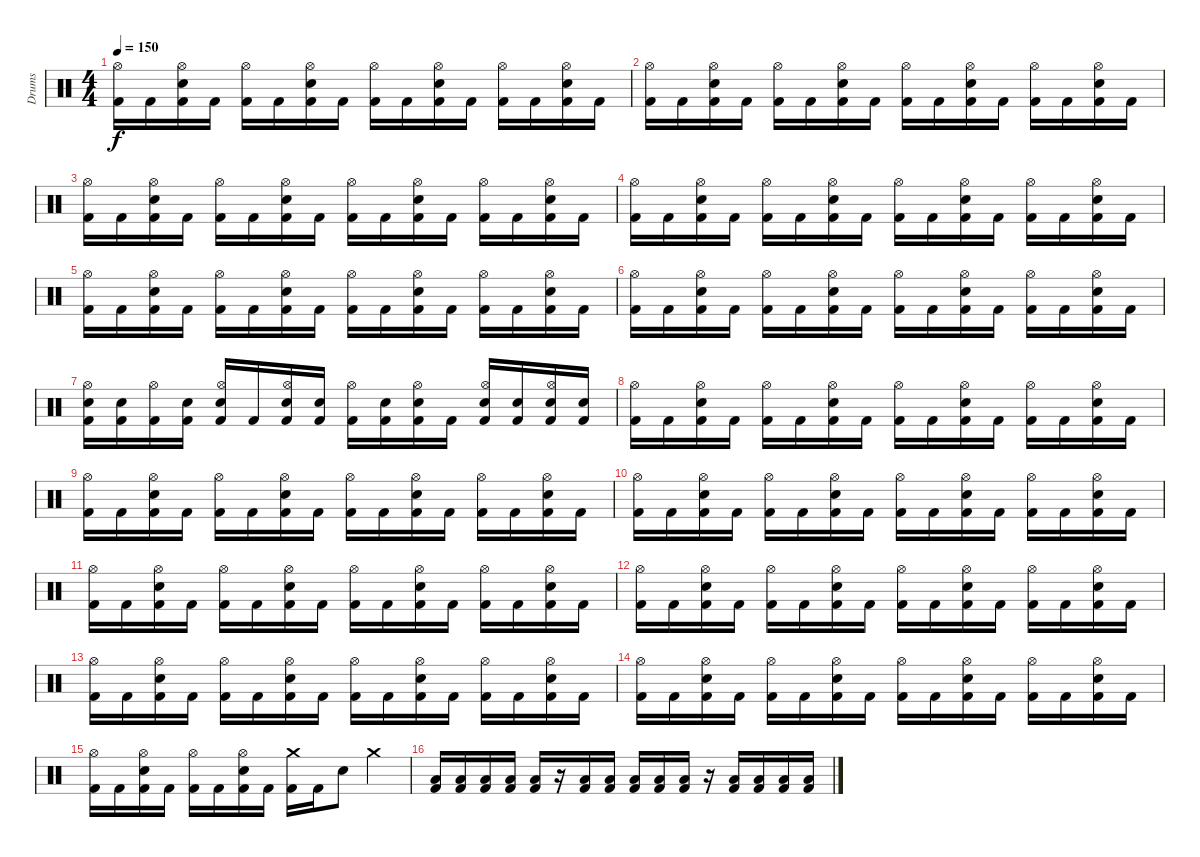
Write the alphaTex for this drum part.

\track ("Drums" "Drums") {instrument percussion}
\staff {score}
\articulation defaults
\ts (4 4)
\tempo 150
\clef neutral
\ks c
("Kick (hit) 2" "Hi-Hat (open)").16{dy f} "Kick (hit) 2".16 ("Kick (hit) 2" "Snare (hit) 2" "Hi-Hat (open)").16 "Kick (hit) 2".16 ("Kick (hit) 2" "Hi-Hat (open)").16 "Kick (hit) 2".16 ("Kick (hit) 2" "Snare (hit) 2" "Hi-Hat (open)").16 "Kick (hit) 2".16 ("Kick (hit) 2" "Hi-Hat (open)").16 "Kick (hit) 2".16 ("Kick (hit) 2" "Snare (hit) 2" "Hi-Hat (open)").16 "Kick (hit) 2".16 ("Kick (hit) 2" "Hi-Hat (open)").16 "Kick (hit) 2".16 ("Kick (hit) 2" "Snare (hit) 2" "Hi-Hat (open)").16 "Kick (hit) 2".16 |
("Kick (hit) 2" "Hi-Hat (open)").16 "Kick (hit) 2".16 ("Kick (hit) 2" "Snare (hit) 2" "Hi-Hat (open)").16 "Kick (hit) 2".16 ("Kick (hit) 2" "Hi-Hat (open)").16 "Kick (hit) 2".16 ("Kick (hit) 2" "Snare (hit) 2" "Hi-Hat (open)").16 "Kick (hit) 2".16 ("Kick (hit) 2" "Hi-Hat (open)").16 "Kick (hit) 2".16 ("Kick (hit) 2" "Snare (hit) 2" "Hi-Hat (open)").16 "Kick (hit) 2".16 ("Kick (hit) 2" "Hi-Hat (open)").16 "Kick (hit) 2".16 ("Kick (hit) 2" "Snare (hit) 2" "Hi-Hat (open)").16 "Kick (hit) 2".16 |
("Kick (hit) 2" "Hi-Hat (open)").16 "Kick (hit) 2".16 ("Kick (hit) 2" "Snare (hit) 2" "Hi-Hat (open)").16 "Kick (hit) 2".16 ("Kick (hit) 2" "Hi-Hat (open)").16 "Kick (hit) 2".16 ("Kick (hit) 2" "Snare (hit) 2" "Hi-Hat (open)").16 "Kick (hit) 2".16 ("Kick (hit) 2" "Hi-Hat (open)").16 "Kick (hit) 2".16 ("Kick (hit) 2" "Snare (hit) 2" "Hi-Hat (open)").16 "Kick (hit) 2".16 ("Kick (hit) 2" "Hi-Hat (open)").16 "Kick (hit) 2".16 ("Kick (hit) 2" "Snare (hit) 2" "Hi-Hat (open)").16 "Kick (hit) 2".16 |
("Kick (hit) 2" "Hi-Hat (open)").16 "Kick (hit) 2".16 ("Kick (hit) 2" "Snare (hit) 2" "Hi-Hat (open)").16 "Kick (hit) 2".16 ("Kick (hit) 2" "Hi-Hat (open)").16 "Kick (hit) 2".16 ("Kick (hit) 2" "Snare (hit) 2" "Hi-Hat (open)").16 "Kick (hit) 2".16 ("Kick (hit) 2" "Hi-Hat (open)").16 "Kick (hit) 2".16 ("Kick (hit) 2" "Snare (hit) 2" "Hi-Hat (open)").16 "Kick (hit) 2".16 ("Kick (hit) 2" "Hi-Hat (open)").16 "Kick (hit) 2".16 ("Kick (hit) 2" "Snare (hit) 2" "Hi-Hat (open)").16 "Kick (hit) 2".16 |
("Kick (hit) 2" "Hi-Hat (open)").16 "Kick (hit) 2".16 ("Kick (hit) 2" "Snare (hit) 2" "Hi-Hat (open)").16 "Kick (hit) 2".16 ("Kick (hit) 2" "Hi-Hat (open)").16 "Kick (hit) 2".16 ("Kick (hit) 2" "Snare (hit) 2" "Hi-Hat (open)").16 "Kick (hit) 2".16 ("Kick (hit) 2" "Hi-Hat (open)").16 "Kick (hit) 2".16 ("Kick (hit) 2" "Snare (hit) 2" "Hi-Hat (open)").16 "Kick (hit) 2".16 ("Kick (hit) 2" "Hi-Hat (open)").16 "Kick (hit) 2".16 ("Kick (hit) 2" "Snare (hit) 2" "Hi-Hat (open)").16 "Kick (hit) 2".16 |
("Kick (hit) 2" "Hi-Hat (open)").16 "Kick (hit) 2".16 ("Kick (hit) 2" "Snare (hit) 2" "Hi-Hat (open)").16 "Kick (hit) 2".16 ("Kick (hit) 2" "Hi-Hat (open)").16 "Kick (hit) 2".16 ("Kick (hit) 2" "Snare (hit) 2" "Hi-Hat (open)").16 "Kick (hit) 2".16 ("Kick (hit) 2" "Hi-Hat (open)").16 "Kick (hit) 2".16 ("Kick (hit) 2" "Snare (hit) 2" "Hi-Hat (open)").16 "Kick (hit) 2".16 ("Kick (hit) 2" "Hi-Hat (open)").16 "Kick (hit) 2".16 ("Kick (hit) 2" "Snare (hit) 2" "Hi-Hat (open)").16 "Kick (hit) 2".16 |
("Kick (hit) 2" "Snare (hit) 2" "Hi-Hat (open)").16 ("Kick (hit) 2" "Snare (hit) 2").16 ("Kick (hit) 2" "Hi-Hat (open)").16 ("Kick (hit) 2" "Snare (hit) 2").16 ("Kick (hit) 2" "Snare (hit) 2" "Hi-Hat (open)").16 "Kick (hit) 2".16 ("Kick (hit) 2" "Snare (hit) 2" "Hi-Hat (open)").16 ("Kick (hit) 2" "Snare (hit) 2").16 ("Kick (hit) 2" "Hi-Hat (open)").16 ("Kick (hit) 2" "Snare (hit) 2").16 ("Kick (hit) 2" "Snare (hit) 2" "Hi-Hat (open)").16 "Kick (hit) 2".16 ("Kick (hit) 2" "Snare (hit) 2" "Hi-Hat (open)").16 ("Kick (hit) 2" "Snare (hit) 2").16 ("Kick (hit) 2" "Snare (hit) 2" "Hi-Hat (open)").16 ("Kick (hit) 2" "Snare (hit) 2").16 |
("Kick (hit) 2" "Hi-Hat (open)").16 "Kick (hit) 2".16 ("Kick (hit) 2" "Snare (hit) 2" "Hi-Hat (open)").16 "Kick (hit) 2".16 ("Kick (hit) 2" "Hi-Hat (open)").16 "Kick (hit) 2".16 ("Kick (hit) 2" "Snare (hit) 2" "Hi-Hat (open)").16 "Kick (hit) 2".16 ("Kick (hit) 2" "Hi-Hat (open)").16 "Kick (hit) 2".16 ("Kick (hit) 2" "Snare (hit) 2" "Hi-Hat (open)").16 "Kick (hit) 2".16 ("Kick (hit) 2" "Hi-Hat (open)").16 "Kick (hit) 2".16 ("Kick (hit) 2" "Snare (hit) 2" "Hi-Hat (open)").16 "Kick (hit) 2".16 |
("Kick (hit) 2" "Hi-Hat (open)").16 "Kick (hit) 2".16 ("Kick (hit) 2" "Snare (hit) 2" "Hi-Hat (open)").16 "Kick (hit) 2".16 ("Kick (hit) 2" "Hi-Hat (open)").16 "Kick (hit) 2".16 ("Kick (hit) 2" "Snare (hit) 2" "Hi-Hat (open)").16 "Kick (hit) 2".16 ("Kick (hit) 2" "Hi-Hat (open)").16 "Kick (hit) 2".16 ("Kick (hit) 2" "Snare (hit) 2" "Hi-Hat (open)").16 "Kick (hit) 2".16 ("Kick (hit) 2" "Hi-Hat (open)").16 "Kick (hit) 2".16 ("Kick (hit) 2" "Snare (hit) 2" "Hi-Hat (open)").16 "Kick (hit) 2".16 |
("Kick (hit) 2" "Hi-Hat (open)").16 "Kick (hit) 2".16 ("Kick (hit) 2" "Snare (hit) 2" "Hi-Hat (open)").16 "Kick (hit) 2".16 ("Kick (hit) 2" "Hi-Hat (open)").16 "Kick (hit) 2".16 ("Kick (hit) 2" "Snare (hit) 2" "Hi-Hat (open)").16 "Kick (hit) 2".16 ("Kick (hit) 2" "Hi-Hat (open)").16 "Kick (hit) 2".16 ("Kick (hit) 2" "Snare (hit) 2" "Hi-Hat (open)").16 "Kick (hit) 2".16 ("Kick (hit) 2" "Hi-Hat (open)").16 "Kick (hit) 2".16 ("Kick (hit) 2" "Snare (hit) 2" "Hi-Hat (open)").16 "Kick (hit) 2".16 |
("Kick (hit) 2" "Hi-Hat (open)").16 "Kick (hit) 2".16 ("Kick (hit) 2" "Snare (hit) 2" "Hi-Hat (open)").16 "Kick (hit) 2".16 ("Kick (hit) 2" "Hi-Hat (open)").16 "Kick (hit) 2".16 ("Kick (hit) 2" "Snare (hit) 2" "Hi-Hat (open)").16 "Kick (hit) 2".16 ("Kick (hit) 2" "Hi-Hat (open)").16 "Kick (hit) 2".16 ("Kick (hit) 2" "Snare (hit) 2" "Hi-Hat (open)").16 "Kick (hit) 2".16 ("Kick (hit) 2" "Hi-Hat (open)").16 "Kick (hit) 2".16 ("Kick (hit) 2" "Snare (hit) 2" "Hi-Hat (open)").16 "Kick (hit) 2".16 |
("Kick (hit) 2" "Hi-Hat (open)").16 "Kick (hit) 2".16 ("Kick (hit) 2" "Snare (hit) 2" "Hi-Hat (open)").16 "Kick (hit) 2".16 ("Kick (hit) 2" "Hi-Hat (open)").16 "Kick (hit) 2".16 ("Kick (hit) 2" "Snare (hit) 2" "Hi-Hat (open)").16 "Kick (hit) 2".16 ("Kick (hit) 2" "Hi-Hat (open)").16 "Kick (hit) 2".16 ("Kick (hit) 2" "Snare (hit) 2" "Hi-Hat (open)").16 "Kick (hit) 2".16 ("Kick (hit) 2" "Hi-Hat (open)").16 "Kick (hit) 2".16 ("Kick (hit) 2" "Snare (hit) 2" "Hi-Hat (open)").16 "Kick (hit) 2".16 |
("Kick (hit) 2" "Hi-Hat (open)").16 "Kick (hit) 2".16 ("Kick (hit) 2" "Snare (hit) 2" "Hi-Hat (open)").16 "Kick (hit) 2".16 ("Kick (hit) 2" "Hi-Hat (open)").16 "Kick (hit) 2".16 ("Kick (hit) 2" "Snare (hit) 2" "Hi-Hat (open)").16 "Kick (hit) 2".16 ("Kick (hit) 2" "Hi-Hat (open)").16 "Kick (hit) 2".16 ("Kick (hit) 2" "Snare (hit) 2" "Hi-Hat (open)").16 "Kick (hit) 2".16 ("Kick (hit) 2" "Hi-Hat (open)").16 "Kick (hit) 2".16 ("Kick (hit) 2" "Snare (hit) 2" "Hi-Hat (open)").16 "Kick (hit) 2".16 |
("Kick (hit) 2" "Hi-Hat (open)").16 "Kick (hit) 2".16 ("Kick (hit) 2" "Snare (hit) 2" "Hi-Hat (open)").16 "Kick (hit) 2".16 ("Kick (hit) 2" "Hi-Hat (open)").16 "Kick (hit) 2".16 ("Kick (hit) 2" "Snare (hit) 2" "Hi-Hat (open)").16 "Kick (hit) 2".16 ("Kick (hit) 2" "Hi-Hat (open)").16 "Kick (hit) 2".16 ("Kick (hit) 2" "Snare (hit) 2" "Hi-Hat (open)").16 "Kick (hit) 2".16 ("Kick (hit) 2" "Hi-Hat (open)").16 "Kick (hit) 2".16 ("Kick (hit) 2" "Snare (hit) 2" "Hi-Hat (open)").16 "Kick (hit) 2".16 |
("Kick (hit) 2" "Hi-Hat (open)").16 "Kick (hit) 2".16 ("Kick (hit) 2" "Snare (hit) 2" "Hi-Hat (open)").16 "Kick (hit) 2".16 ("Kick (hit) 2" "Hi-Hat (open)").16 "Kick (hit) 2".16 ("Kick (hit) 2" "Snare (hit) 2" "Hi-Hat (open)").16 "Kick (hit) 2".16 ("Kick (hit) 2" "Crash medium (hit)").16 "Kick (hit) 2".16 "Snare (hit) 2".8 "Crash medium (hit)".4 |
("Low Floor Tom (hit)" "Kick (hit) 2").16 ("Low Floor Tom (hit)" "Kick (hit) 2").16 ("Low Floor Tom (hit)" "Kick (hit) 2").16 ("Low Floor Tom (hit)" "Kick (hit) 2").16 ("Low Floor Tom (hit)" "Kick (hit) 2").16 r.16 ("Low Floor Tom (hit)" "Kick (hit) 2").16 ("Low Floor Tom (hit)" "Kick (hit) 2").16 ("Low Floor Tom (hit)" "Kick (hit) 2").16 ("Low Floor Tom (hit)" "Kick (hit) 2").16 ("Low Floor Tom (hit)" "Kick (hit) 2").16 r.16 ("Low Floor Tom (hit)" "Kick (hit) 2").16 ("Low Floor Tom (hit)" "Kick (hit) 2").16 ("Low Floor Tom (hit)" "Kick (hit) 2").16 ("Low Floor Tom (hit)" "Kick (hit) 2").16
